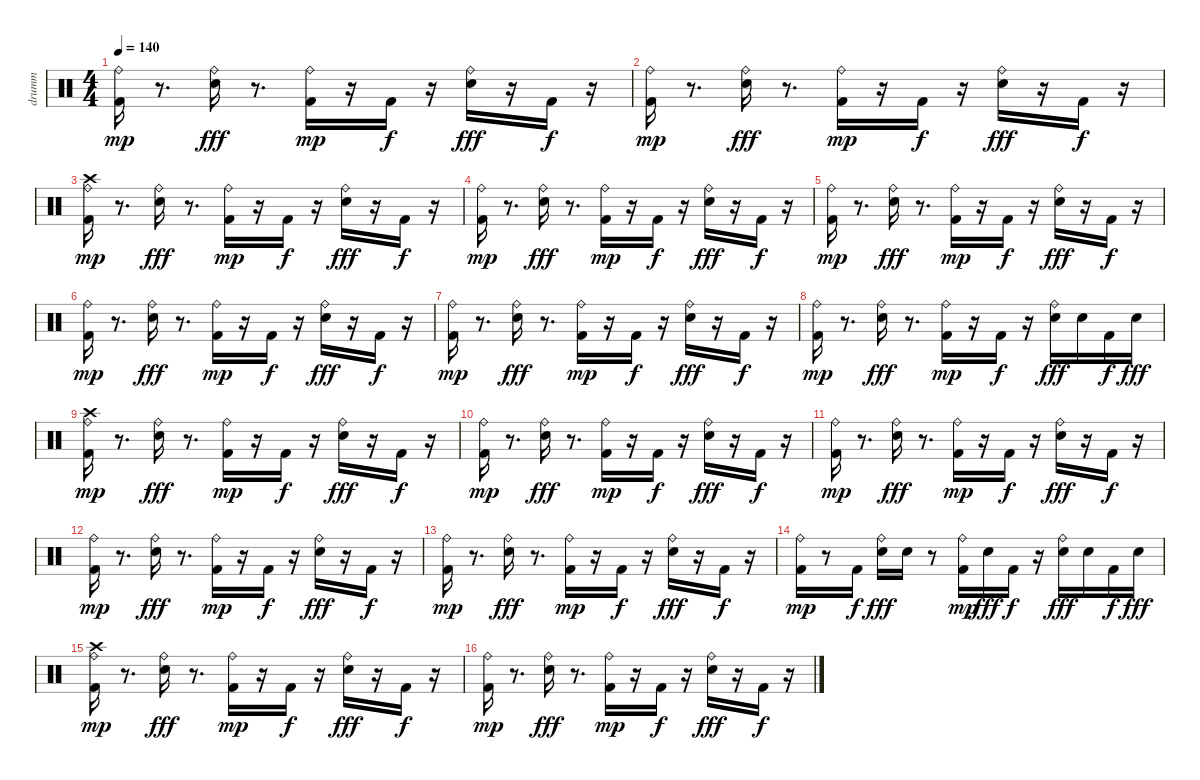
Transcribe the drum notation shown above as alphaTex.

\track ("drumm" "drumm") {instrument percussion}
\staff {score}
\articulation defaults
\ts (4 4)
\tempo 140
\clef neutral
\ks c
("Ride (bell)" "Kick (hit) 2").16{dy mp} r.8{d} ("Ride (bell)" "Electric Snare (hit)").16{dy fff} r.8{d} ("Ride (bell)" "Kick (hit) 2").16{dy mp} r.16 "Kick (hit) 2".16{dy f} r.16 ("Ride (bell)" "Electric Snare (hit)").16{dy fff} r.16 "Kick (hit) 2".16{dy f} r.16 |
("Ride (bell)" "Kick (hit) 2").16{dy mp} r.8{d} ("Ride (bell)" "Electric Snare (hit)").16{dy fff} r.8{d} ("Ride (bell)" "Kick (hit) 2").16{dy mp} r.16 "Kick (hit) 2".16{dy f} r.16 ("Ride (bell)" "Electric Snare (hit)").16{dy fff} r.16 "Kick (hit) 2".16{dy f} r.16 |
("Crash high (hit)" "Ride (bell)" "Kick (hit) 2").16{dy mp} r.8{d} ("Ride (bell)" "Electric Snare (hit)").16{dy fff} r.8{d} ("Ride (bell)" "Kick (hit) 2").16{dy mp} r.16 "Kick (hit) 2".16{dy f} r.16 ("Ride (bell)" "Electric Snare (hit)").16{dy fff} r.16 "Kick (hit) 2".16{dy f} r.16 |
("Ride (bell)" "Kick (hit) 2").16{dy mp} r.8{d} ("Ride (bell)" "Electric Snare (hit)").16{dy fff} r.8{d} ("Ride (bell)" "Kick (hit) 2").16{dy mp} r.16 "Kick (hit) 2".16{dy f} r.16 ("Ride (bell)" "Electric Snare (hit)").16{dy fff} r.16 "Kick (hit) 2".16{dy f} r.16 |
("Ride (bell)" "Kick (hit) 2").16{dy mp} r.8{d} ("Ride (bell)" "Electric Snare (hit)").16{dy fff} r.8{d} ("Ride (bell)" "Kick (hit) 2").16{dy mp} r.16 "Kick (hit) 2".16{dy f} r.16 ("Ride (bell)" "Electric Snare (hit)").16{dy fff} r.16 "Kick (hit) 2".16{dy f} r.16 |
("Ride (bell)" "Kick (hit) 2").16{dy mp} r.8{d} ("Ride (bell)" "Electric Snare (hit)").16{dy fff} r.8{d} ("Ride (bell)" "Kick (hit) 2").16{dy mp} r.16 "Kick (hit) 2".16{dy f} r.16 ("Ride (bell)" "Electric Snare (hit)").16{dy fff} r.16 "Kick (hit) 2".16{dy f} r.16 |
("Ride (bell)" "Kick (hit) 2").16{dy mp} r.8{d} ("Ride (bell)" "Electric Snare (hit)").16{dy fff} r.8{d} ("Ride (bell)" "Kick (hit) 2").16{dy mp} r.16 "Kick (hit) 2".16{dy f} r.16 ("Ride (bell)" "Electric Snare (hit)").16{dy fff} r.16 "Kick (hit) 2".16{dy f} r.16 |
("Ride (bell)" "Kick (hit) 2").16{dy mp} r.8{d} ("Ride (bell)" "Electric Snare (hit)").16{dy fff} r.8{d} ("Ride (bell)" "Kick (hit) 2").16{dy mp} r.16 "Kick (hit) 2".16{dy f} r.16 ("Ride (bell)" "Electric Snare (hit)").16{dy fff} "Electric Snare (hit)".16 "Kick (hit) 2".16{dy f} "Electric Snare (hit)".16{dy fff} |
("Crash high (hit)" "Ride (bell)" "Kick (hit) 2").16{dy mp} r.8{d} ("Ride (bell)" "Electric Snare (hit)").16{dy fff} r.8{d} ("Ride (bell)" "Kick (hit) 2").16{dy mp} r.16 "Kick (hit) 2".16{dy f} r.16 ("Ride (bell)" "Electric Snare (hit)").16{dy fff} r.16 "Kick (hit) 2".16{dy f} r.16 |
("Ride (bell)" "Kick (hit) 2").16{dy mp} r.8{d} ("Ride (bell)" "Electric Snare (hit)").16{dy fff} r.8{d} ("Ride (bell)" "Kick (hit) 2").16{dy mp} r.16 "Kick (hit) 2".16{dy f} r.16 ("Ride (bell)" "Electric Snare (hit)").16{dy fff} r.16 "Kick (hit) 2".16{dy f} r.16 |
("Ride (bell)" "Kick (hit) 2").16{dy mp} r.8{d} ("Ride (bell)" "Electric Snare (hit)").16{dy fff} r.8{d} ("Ride (bell)" "Kick (hit) 2").16{dy mp} r.16 "Kick (hit) 2".16{dy f} r.16 ("Ride (bell)" "Electric Snare (hit)").16{dy fff} r.16 "Kick (hit) 2".16{dy f} r.16 |
("Ride (bell)" "Kick (hit) 2").16{dy mp} r.8{d} ("Ride (bell)" "Electric Snare (hit)").16{dy fff} r.8{d} ("Ride (bell)" "Kick (hit) 2").16{dy mp} r.16 "Kick (hit) 2".16{dy f} r.16 ("Ride (bell)" "Electric Snare (hit)").16{dy fff} r.16 "Kick (hit) 2".16{dy f} r.16 |
("Ride (bell)" "Kick (hit) 2").16{dy mp} r.8{d} ("Ride (bell)" "Electric Snare (hit)").16{dy fff} r.8{d} ("Ride (bell)" "Kick (hit) 2").16{dy mp} r.16 "Kick (hit) 2".16{dy f} r.16 ("Ride (bell)" "Electric Snare (hit)").16{dy fff} r.16 "Kick (hit) 2".16{dy f} r.16 |
("Ride (bell)" "Kick (hit) 2").16{dy mp} r.8 "Kick (hit) 2".16{dy f} ("Ride (bell)" "Electric Snare (hit)").16{dy fff} "Electric Snare (hit)".16 r.8 ("Ride (bell)" "Kick (hit) 2").16{dy mp} "Electric Snare (hit)".16{dy fff} "Kick (hit) 2".16{dy f} r.16 ("Ride (bell)" "Electric Snare (hit)").16{dy fff} "Electric Snare (hit)".16 "Kick (hit) 2".16{dy f} "Electric Snare (hit)".16{dy fff} |
("Crash high (hit)" "Ride (bell)" "Kick (hit) 2").16{dy mp} r.8{d} ("Ride (bell)" "Electric Snare (hit)").16{dy fff} r.8{d} ("Ride (bell)" "Kick (hit) 2").16{dy mp} r.16 "Kick (hit) 2".16{dy f} r.16 ("Ride (bell)" "Electric Snare (hit)").16{dy fff} r.16 "Kick (hit) 2".16{dy f} r.16 |
("Ride (bell)" "Kick (hit) 2").16{dy mp} r.8{d} ("Ride (bell)" "Electric Snare (hit)").16{dy fff} r.8{d} ("Ride (bell)" "Kick (hit) 2").16{dy mp} r.16 "Kick (hit) 2".16{dy f} r.16 ("Ride (bell)" "Electric Snare (hit)").16{dy fff} r.16 "Kick (hit) 2".16{dy f} r.16
